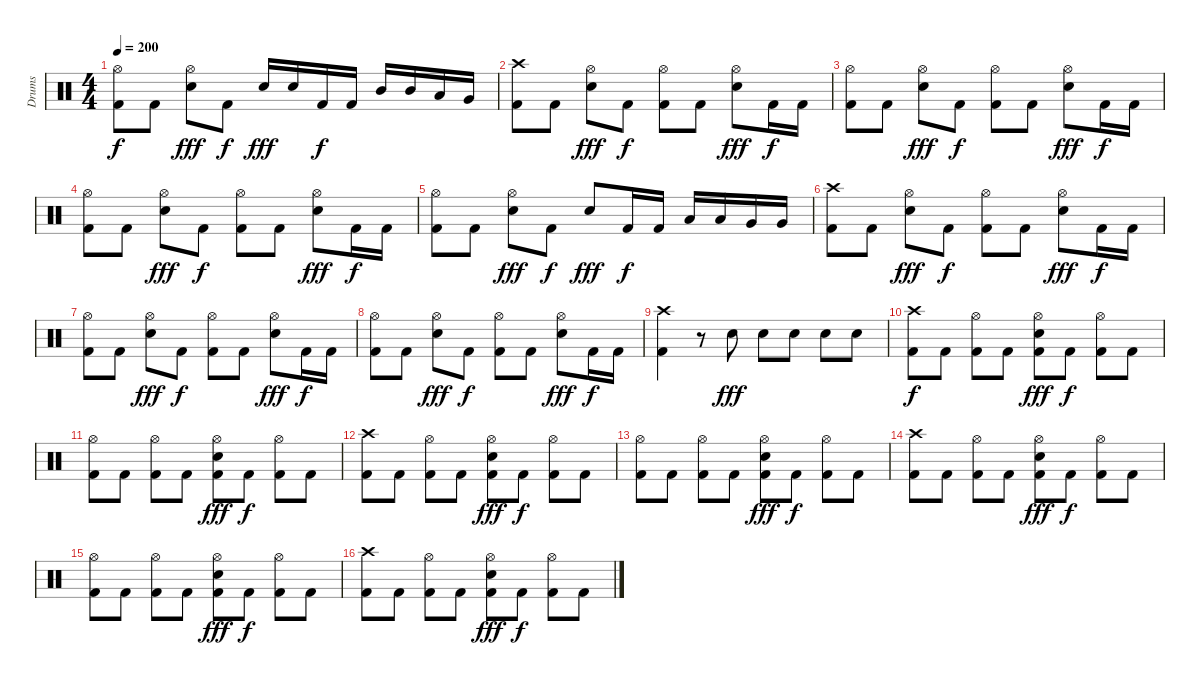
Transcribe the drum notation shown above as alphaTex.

\track ("Drums" "Drums") {instrument percussion}
\staff {score}
\articulation defaults
\ts (4 4)
\tempo 200
\clef neutral
\ks c
("Hi-Hat (open)" "Kick (hit) 2").8{dy f} "Kick (hit) 2".8 ("Hi-Hat (open)" "Snare (hit) 2").8{dy fff} "Kick (hit) 2".8{dy f} "Snare (hit) 2".16{dy fff} "Snare (hit) 2".16 "Kick (hit) 2".16{dy f} "Kick (hit) 2".16 "Mid Tom (hit)".16 "Mid Tom (hit)".16 "Low Tom (hit)".16 "Very Low Tom (hit)".16 |
("Crash high (hit)" "Kick (hit) 2").8 "Kick (hit) 2".8 ("Hi-Hat (open)" "Snare (hit) 2").8{dy fff} "Kick (hit) 2".8{dy f} ("Hi-Hat (open)" "Kick (hit) 2").8 "Kick (hit) 2".8 ("Hi-Hat (open)" "Snare (hit) 2").8{dy fff} "Kick (hit) 2".16{dy f} "Kick (hit) 2".16 |
("Hi-Hat (open)" "Kick (hit) 2").8 "Kick (hit) 2".8 ("Hi-Hat (open)" "Snare (hit) 2").8{dy fff} "Kick (hit) 2".8{dy f} ("Hi-Hat (open)" "Kick (hit) 2").8 "Kick (hit) 2".8 ("Hi-Hat (open)" "Snare (hit) 2").8{dy fff} "Kick (hit) 2".16{dy f} "Kick (hit) 2".16 |
("Hi-Hat (open)" "Kick (hit) 2").8 "Kick (hit) 2".8 ("Hi-Hat (open)" "Snare (hit) 2").8{dy fff} "Kick (hit) 2".8{dy f} ("Hi-Hat (open)" "Kick (hit) 2").8 "Kick (hit) 2".8 ("Hi-Hat (open)" "Snare (hit) 2").8{dy fff} "Kick (hit) 2".16{dy f} "Kick (hit) 2".16 |
("Hi-Hat (open)" "Kick (hit) 2").8 "Kick (hit) 2".8 ("Hi-Hat (open)" "Snare (hit) 2").8{dy fff} "Kick (hit) 2".8{dy f} "Snare (hit) 2".8{dy fff} "Kick (hit) 2".16{dy f} "Kick (hit) 2".16 "Low Tom (hit)".16 "Low Tom (hit)".16 "Very Low Tom (hit)".16 "Very Low Tom (hit)".16 |
("Crash high (hit)" "Kick (hit) 2").8 "Kick (hit) 2".8 ("Hi-Hat (open)" "Snare (hit) 2").8{dy fff} "Kick (hit) 2".8{dy f} ("Hi-Hat (open)" "Kick (hit) 2").8 "Kick (hit) 2".8 ("Hi-Hat (open)" "Snare (hit) 2").8{dy fff} "Kick (hit) 2".16{dy f} "Kick (hit) 2".16 |
("Hi-Hat (open)" "Kick (hit) 2").8 "Kick (hit) 2".8 ("Hi-Hat (open)" "Snare (hit) 2").8{dy fff} "Kick (hit) 2".8{dy f} ("Hi-Hat (open)" "Kick (hit) 2").8 "Kick (hit) 2".8 ("Hi-Hat (open)" "Snare (hit) 2").8{dy fff} "Kick (hit) 2".16{dy f} "Kick (hit) 2".16 |
("Hi-Hat (open)" "Kick (hit) 2").8 "Kick (hit) 2".8 ("Hi-Hat (open)" "Snare (hit) 2").8{dy fff} "Kick (hit) 2".8{dy f} ("Hi-Hat (open)" "Kick (hit) 2").8 "Kick (hit) 2".8 ("Hi-Hat (open)" "Snare (hit) 2").8{dy fff} "Kick (hit) 2".16{dy f} "Kick (hit) 2".16 |
("Crash high (hit)" "Kick (hit) 2").4 r.8 "Snare (hit) 2".8{dy fff} "Snare (hit) 2".8 "Snare (hit) 2".8 "Snare (hit) 2".8 "Snare (hit) 2".8 |
("Crash high (hit)" "Kick (hit) 2").8{dy f} "Kick (hit) 2".8 ("Hi-Hat (open)" "Kick (hit) 2").8 "Kick (hit) 2".8 ("Hi-Hat (open)" "Snare (hit) 2" "Kick (hit) 2").8{dy fff} "Kick (hit) 2".8{dy f} ("Hi-Hat (open)" "Kick (hit) 2").8 "Kick (hit) 2".8 |
("Hi-Hat (open)" "Kick (hit) 2").8 "Kick (hit) 2".8 ("Hi-Hat (open)" "Kick (hit) 2").8 "Kick (hit) 2".8 ("Hi-Hat (open)" "Snare (hit) 2" "Kick (hit) 2").8{dy fff} "Kick (hit) 2".8{dy f} ("Hi-Hat (open)" "Kick (hit) 2").8 "Kick (hit) 2".8 |
("Crash high (hit)" "Kick (hit) 2").8 "Kick (hit) 2".8 ("Hi-Hat (open)" "Kick (hit) 2").8 "Kick (hit) 2".8 ("Hi-Hat (open)" "Snare (hit) 2" "Kick (hit) 2").8{dy fff} "Kick (hit) 2".8{dy f} ("Hi-Hat (open)" "Kick (hit) 2").8 "Kick (hit) 2".8 |
("Hi-Hat (open)" "Kick (hit) 2").8 "Kick (hit) 2".8 ("Hi-Hat (open)" "Kick (hit) 2").8 "Kick (hit) 2".8 ("Hi-Hat (open)" "Snare (hit) 2" "Kick (hit) 2").8{dy fff} "Kick (hit) 2".8{dy f} ("Hi-Hat (open)" "Kick (hit) 2").8 "Kick (hit) 2".8 |
("Crash high (hit)" "Kick (hit) 2").8 "Kick (hit) 2".8 ("Hi-Hat (open)" "Kick (hit) 2").8 "Kick (hit) 2".8 ("Hi-Hat (open)" "Snare (hit) 2" "Kick (hit) 2").8{dy fff} "Kick (hit) 2".8{dy f} ("Hi-Hat (open)" "Kick (hit) 2").8 "Kick (hit) 2".8 |
("Hi-Hat (open)" "Kick (hit) 2").8 "Kick (hit) 2".8 ("Hi-Hat (open)" "Kick (hit) 2").8 "Kick (hit) 2".8 ("Hi-Hat (open)" "Snare (hit) 2" "Kick (hit) 2").8{dy fff} "Kick (hit) 2".8{dy f} ("Hi-Hat (open)" "Kick (hit) 2").8 "Kick (hit) 2".8 |
("Crash high (hit)" "Kick (hit) 2").8 "Kick (hit) 2".8 ("Hi-Hat (open)" "Kick (hit) 2").8 "Kick (hit) 2".8 ("Hi-Hat (open)" "Snare (hit) 2" "Kick (hit) 2").8{dy fff} "Kick (hit) 2".8{dy f} ("Hi-Hat (open)" "Kick (hit) 2").8 "Kick (hit) 2".8
